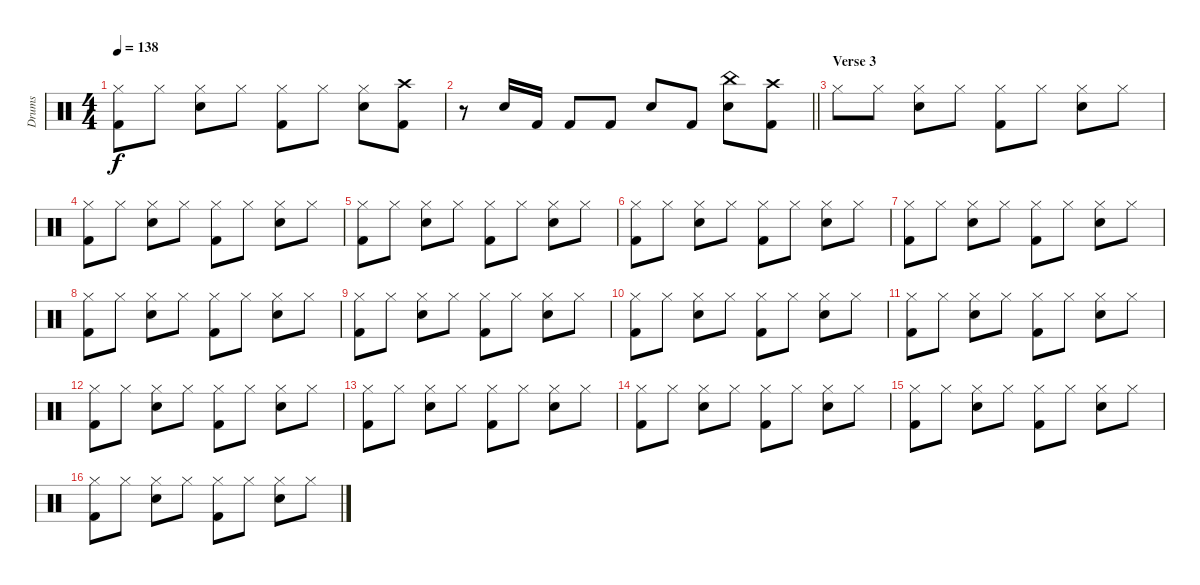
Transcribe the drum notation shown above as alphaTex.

\track ("Drums" "Drums") {instrument percussion}
\staff {score}
\articulation defaults
\ts (4 4)
\tempo 138
\clef neutral
\ks c
("Hi-Hat (closed)" "Kick (hit) 2").8{dy f} "Hi-Hat (closed)".8 ("Hi-Hat (closed)" "Snare (hit) 2").8 "Hi-Hat (closed)".8 ("Hi-Hat (closed)" "Kick (hit) 2").8 "Hi-Hat (closed)".8 ("Hi-Hat (closed)" "Snare (hit) 2").8 ("Crash high (hit)" "Kick (hit) 2").8 |
\barLineRight lightlight
r.8 "Snare (hit) 2".16 "Kick (hit) 2".16 "Kick (hit) 2".8 "Kick (hit) 2".8 "Snare (hit) 2".8 "Kick (hit) 2".8 ("China (hit)" "Snare (hit) 2").8 ("Crash high (hit)" "Kick (hit) 2").8 |
\section ("" "Verse 3")
"Hi-Hat (closed)".8 "Hi-Hat (closed)".8 ("Hi-Hat (closed)" "Snare (hit) 2").8 "Hi-Hat (closed)".8 ("Hi-Hat (closed)" "Kick (hit) 2").8 "Hi-Hat (closed)".8 ("Hi-Hat (closed)" "Snare (hit) 2").8 "Hi-Hat (closed)".8 |
("Hi-Hat (closed)" "Kick (hit) 2").8 "Hi-Hat (closed)".8 ("Hi-Hat (closed)" "Snare (hit) 2").8 "Hi-Hat (closed)".8 ("Hi-Hat (closed)" "Kick (hit) 2").8 "Hi-Hat (closed)".8 ("Hi-Hat (closed)" "Snare (hit) 2").8 "Hi-Hat (closed)".8 |
("Hi-Hat (closed)" "Kick (hit) 2").8 "Hi-Hat (closed)".8 ("Hi-Hat (closed)" "Snare (hit) 2").8 "Hi-Hat (closed)".8 ("Hi-Hat (closed)" "Kick (hit) 2").8 "Hi-Hat (closed)".8 ("Hi-Hat (closed)" "Snare (hit) 2").8 "Hi-Hat (closed)".8 |
("Hi-Hat (closed)" "Kick (hit) 2").8 "Hi-Hat (closed)".8 ("Hi-Hat (closed)" "Snare (hit) 2").8 "Hi-Hat (closed)".8 ("Hi-Hat (closed)" "Kick (hit) 2").8 "Hi-Hat (closed)".8 ("Hi-Hat (closed)" "Snare (hit) 2").8 "Hi-Hat (closed)".8 |
("Hi-Hat (closed)" "Kick (hit) 2").8 "Hi-Hat (closed)".8 ("Hi-Hat (closed)" "Snare (hit) 2").8 "Hi-Hat (closed)".8 ("Hi-Hat (closed)" "Kick (hit) 2").8 "Hi-Hat (closed)".8 ("Hi-Hat (closed)" "Snare (hit) 2").8 "Hi-Hat (closed)".8 |
("Hi-Hat (closed)" "Kick (hit) 2").8 "Hi-Hat (closed)".8 ("Hi-Hat (closed)" "Snare (hit) 2").8 "Hi-Hat (closed)".8 ("Hi-Hat (closed)" "Kick (hit) 2").8 "Hi-Hat (closed)".8 ("Hi-Hat (closed)" "Snare (hit) 2").8 "Hi-Hat (closed)".8 |
("Hi-Hat (closed)" "Kick (hit) 2").8 "Hi-Hat (closed)".8 ("Hi-Hat (closed)" "Snare (hit) 2").8 "Hi-Hat (closed)".8 ("Hi-Hat (closed)" "Kick (hit) 2").8 "Hi-Hat (closed)".8 ("Hi-Hat (closed)" "Snare (hit) 2").8 "Hi-Hat (closed)".8 |
("Hi-Hat (closed)" "Kick (hit) 2").8 "Hi-Hat (closed)".8 ("Hi-Hat (closed)" "Snare (hit) 2").8 "Hi-Hat (closed)".8 ("Hi-Hat (closed)" "Kick (hit) 2").8 "Hi-Hat (closed)".8 ("Hi-Hat (closed)" "Snare (hit) 2").8 "Hi-Hat (closed)".8 |
("Hi-Hat (closed)" "Kick (hit) 2").8 "Hi-Hat (closed)".8 ("Hi-Hat (closed)" "Snare (hit) 2").8 "Hi-Hat (closed)".8 ("Hi-Hat (closed)" "Kick (hit) 2").8 "Hi-Hat (closed)".8 ("Hi-Hat (closed)" "Snare (hit) 2").8 "Hi-Hat (closed)".8 |
("Hi-Hat (closed)" "Kick (hit) 2").8 "Hi-Hat (closed)".8 ("Hi-Hat (closed)" "Snare (hit) 2").8 "Hi-Hat (closed)".8 ("Hi-Hat (closed)" "Kick (hit) 2").8 "Hi-Hat (closed)".8 ("Hi-Hat (closed)" "Snare (hit) 2").8 "Hi-Hat (closed)".8 |
("Hi-Hat (closed)" "Kick (hit) 2").8 "Hi-Hat (closed)".8 ("Hi-Hat (closed)" "Snare (hit) 2").8 "Hi-Hat (closed)".8 ("Hi-Hat (closed)" "Kick (hit) 2").8 "Hi-Hat (closed)".8 ("Hi-Hat (closed)" "Snare (hit) 2").8 "Hi-Hat (closed)".8 |
("Hi-Hat (closed)" "Kick (hit) 2").8 "Hi-Hat (closed)".8 ("Hi-Hat (closed)" "Snare (hit) 2").8 "Hi-Hat (closed)".8 ("Hi-Hat (closed)" "Kick (hit) 2").8 "Hi-Hat (closed)".8 ("Hi-Hat (closed)" "Snare (hit) 2").8 "Hi-Hat (closed)".8 |
("Hi-Hat (closed)" "Kick (hit) 2").8 "Hi-Hat (closed)".8 ("Hi-Hat (closed)" "Snare (hit) 2").8 "Hi-Hat (closed)".8 ("Hi-Hat (closed)" "Kick (hit) 2").8 "Hi-Hat (closed)".8 ("Hi-Hat (closed)" "Snare (hit) 2").8 "Hi-Hat (closed)".8 |
("Hi-Hat (closed)" "Kick (hit) 2").8 "Hi-Hat (closed)".8 ("Hi-Hat (closed)" "Snare (hit) 2").8 "Hi-Hat (closed)".8 ("Hi-Hat (closed)" "Kick (hit) 2").8 "Hi-Hat (closed)".8 ("Hi-Hat (closed)" "Snare (hit) 2").8 "Hi-Hat (closed)".8
